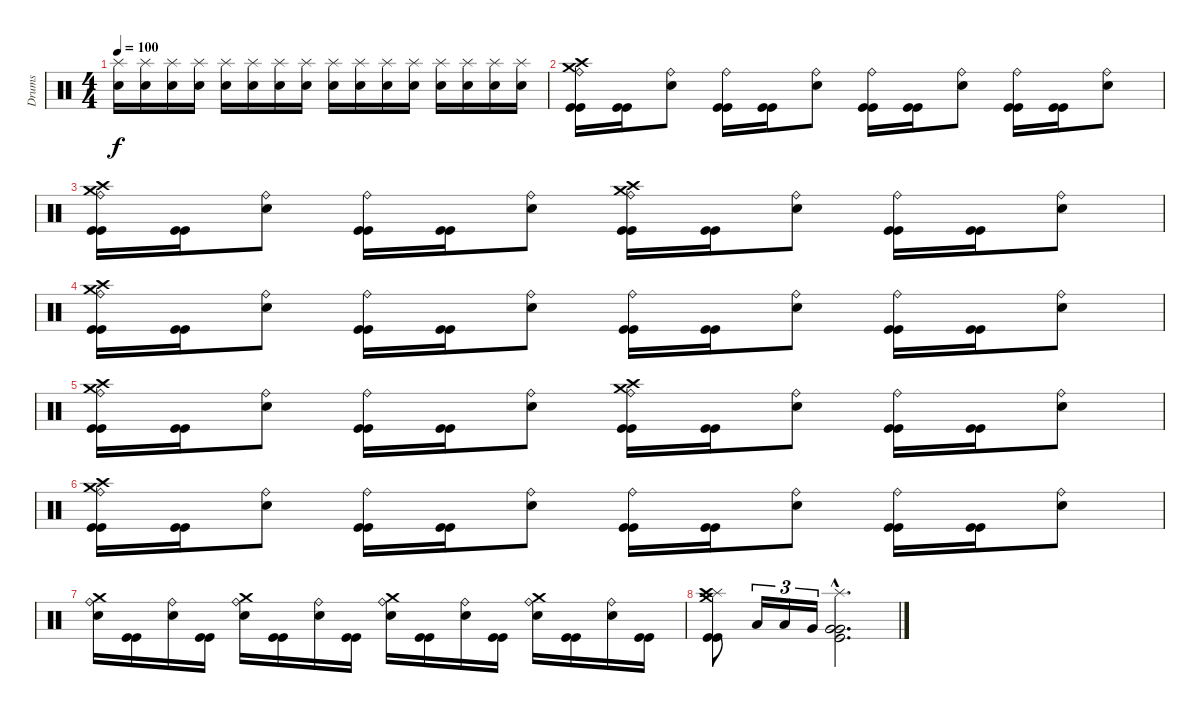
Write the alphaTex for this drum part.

\track ("Drums" "Drums") {instrument percussion}
\staff {score}
\articulation defaults
\ts (4 4)
\tempo 100
\clef neutral
\ks c
("Splash (hit)" "Snare (hit) 2").16{dy f} ("Splash (hit)" "Snare (hit) 2").16 ("Splash (hit)" "Snare (hit) 2").16 ("Splash (hit)" "Snare (hit) 2").16 ("Splash (hit)" "Snare (hit) 2").16 ("Splash (hit)" "Snare (hit) 2").16 ("Splash (hit)" "Snare (hit) 2").16 ("Splash (hit)" "Snare (hit) 2").16 ("Splash (hit)" "Snare (hit) 2").16 ("Splash (hit)" "Snare (hit) 2").16 ("Splash (hit)" "Snare (hit) 2").16 ("Splash (hit)" "Snare (hit) 2").16 ("Splash (hit)" "Snare (hit) 2").16 ("Splash (hit)" "Snare (hit) 2").16 ("Splash (hit)" "Snare (hit) 2").16 ("Splash (hit)" "Snare (hit) 2").16 |
("Ride (bell)" "Crash high (hit)" "Crash medium (hit)" "Kick (hit)" "Kick (hit)").16 ("Kick (hit)" "Kick (hit)").16 ("Ride (bell)" "Snare (hit) 2").8 ("Ride (bell)" "Kick (hit)" "Kick (hit)").16 ("Kick (hit)" "Kick (hit)").16 ("Ride (bell)" "Snare (hit) 2").8 ("Ride (bell)" "Kick (hit)" "Kick (hit)").16 ("Kick (hit)" "Kick (hit)").16 ("Ride (bell)" "Snare (hit) 2").8 ("Ride (bell)" "Kick (hit)" "Kick (hit)").16 ("Kick (hit)" "Kick (hit)").16 ("Ride (bell)" "Snare (hit) 2").8 |
("Ride (bell)" "Crash high (hit)" "Crash medium (hit)" "Kick (hit)" "Kick (hit)").16 ("Kick (hit)" "Kick (hit)").16 ("Ride (bell)" "Snare (hit) 2").8 ("Ride (bell)" "Kick (hit)" "Kick (hit)").16 ("Kick (hit)" "Kick (hit)").16 ("Ride (bell)" "Snare (hit) 2").8 ("Ride (bell)" "Crash high (hit)" "Crash medium (hit)" "Kick (hit)" "Kick (hit)").16 ("Kick (hit)" "Kick (hit)").16 ("Ride (bell)" "Snare (hit) 2").8 ("Ride (bell)" "Kick (hit)" "Kick (hit)").16 ("Kick (hit)" "Kick (hit)").16 ("Ride (bell)" "Snare (hit) 2").8 |
("Ride (bell)" "Crash high (hit)" "Crash medium (hit)" "Kick (hit)" "Kick (hit)").16 ("Kick (hit)" "Kick (hit)").16 ("Ride (bell)" "Snare (hit) 2").8 ("Ride (bell)" "Kick (hit)" "Kick (hit)").16 ("Kick (hit)" "Kick (hit)").16 ("Ride (bell)" "Snare (hit) 2").8 ("Ride (bell)" "Kick (hit)" "Kick (hit)").16 ("Kick (hit)" "Kick (hit)").16 ("Ride (bell)" "Snare (hit) 2").8 ("Ride (bell)" "Kick (hit)" "Kick (hit)").16 ("Kick (hit)" "Kick (hit)").16 ("Ride (bell)" "Snare (hit) 2").8 |
("Ride (bell)" "Crash high (hit)" "Crash medium (hit)" "Kick (hit)" "Kick (hit)").16 ("Kick (hit)" "Kick (hit)").16 ("Ride (bell)" "Snare (hit) 2").8 ("Ride (bell)" "Kick (hit)" "Kick (hit)").16 ("Kick (hit)" "Kick (hit)").16 ("Ride (bell)" "Snare (hit) 2").8 ("Ride (bell)" "Crash high (hit)" "Crash medium (hit)" "Kick (hit)" "Kick (hit)").16 ("Kick (hit)" "Kick (hit)").16 ("Ride (bell)" "Snare (hit) 2").8 ("Ride (bell)" "Kick (hit)" "Kick (hit)").16 ("Kick (hit)" "Kick (hit)").16 ("Ride (bell)" "Snare (hit) 2").8 |
("Ride (bell)" "Crash high (hit)" "Crash medium (hit)" "Kick (hit)" "Kick (hit)").16 ("Kick (hit)" "Kick (hit)").16 ("Ride (bell)" "Snare (hit) 2").8 ("Ride (bell)" "Kick (hit)" "Kick (hit)").16 ("Kick (hit)" "Kick (hit)").16 ("Ride (bell)" "Snare (hit) 2").8 ("Ride (bell)" "Kick (hit)" "Kick (hit)").16 ("Kick (hit)" "Kick (hit)").16 ("Ride (bell)" "Snare (hit) 2").8 ("Ride (bell)" "Kick (hit)" "Kick (hit)").16 ("Kick (hit)" "Kick (hit)").16 ("Ride (bell)" "Snare (hit) 2").8 |
("Ride (bell)" "Snare (hit) 2" "Crash medium (hit)").16 ("Kick (hit)" "Kick (hit)").16 ("Ride (bell)" "Snare (hit) 2").16 ("Kick (hit)" "Kick (hit)").16 ("Ride (bell)" "Snare (hit) 2" "Crash medium (hit)").16 ("Kick (hit)" "Kick (hit)").16 ("Ride (bell)" "Snare (hit) 2").16 ("Kick (hit)" "Kick (hit)").16 ("Ride (bell)" "Snare (hit) 2" "Crash medium (hit)").16 ("Kick (hit)" "Kick (hit)").16 ("Ride (bell)" "Snare (hit) 2").16 ("Kick (hit)" "Kick (hit)").16 ("Ride (bell)" "Snare (hit) 2" "Crash medium (hit)").16 ("Kick (hit)" "Kick (hit)").16 ("Ride (bell)" "Snare (hit) 2").16 ("Kick (hit)" "Kick (hit)").16 |
("Splash (hit)" "Crash high (hit)" "Crash medium (hit)" "Kick (hit)" "Kick (hit)").8 "Low Tom (hit)".16{tu (3 2)} "Low Tom (hit)".16{tu (3 2)} "Very Low Tom (hit)".16{tu (3 2)} ("Splash (hit)"{hac} "Very Low Tom (hit)"{hac} "Very Low Tom (hit)"{hac} "Kick (hit)"{hac}).2{d}
